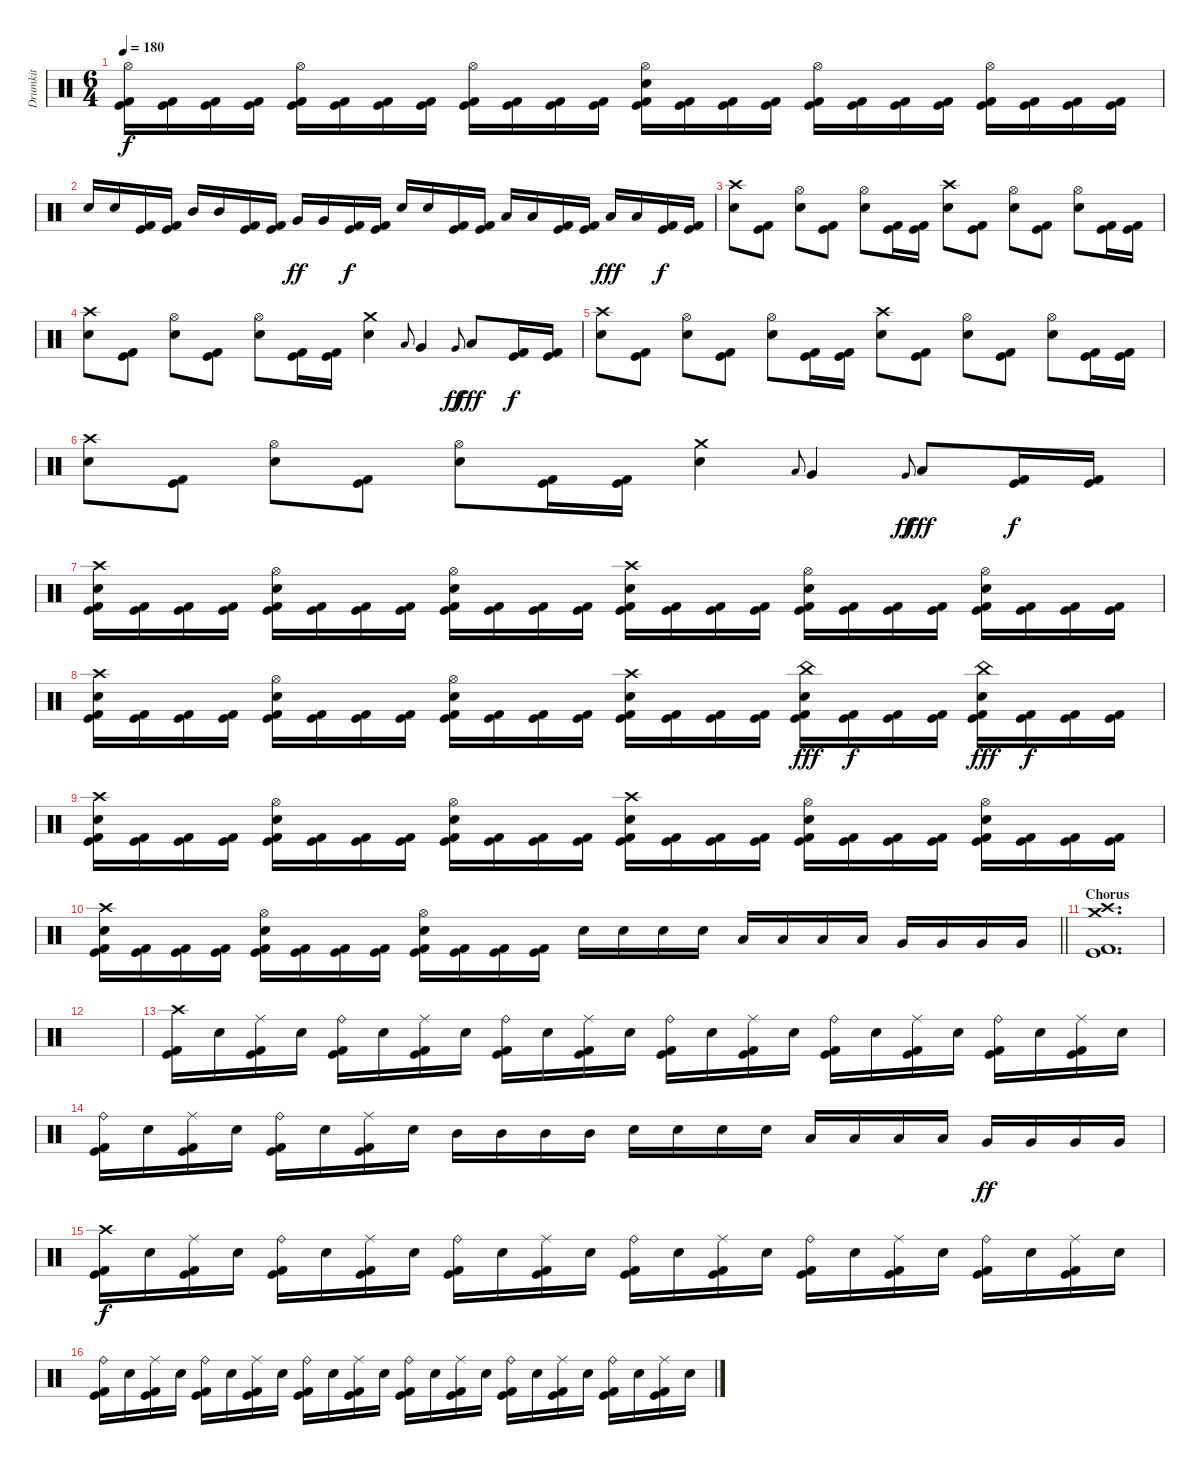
\track ("Drumkit" "Drumkit") {instrument percussion}
\staff {score}
\articulation defaults
\ts (6 4)
\tempo 180
\clef neutral
\ks c
("Hi-Hat (open)" "Kick (hit)" "Kick (hit) 2").16{dy f} ("Kick (hit)" "Kick (hit) 2").16 ("Kick (hit)" "Kick (hit) 2").16 ("Kick (hit)" "Kick (hit) 2").16 ("Hi-Hat (open)" "Kick (hit)" "Kick (hit) 2").16 ("Kick (hit)" "Kick (hit) 2").16 ("Kick (hit)" "Kick (hit) 2").16 ("Kick (hit)" "Kick (hit) 2").16 ("Hi-Hat (open)" "Kick (hit)" "Kick (hit) 2").16 ("Kick (hit)" "Kick (hit) 2").16 ("Kick (hit)" "Kick (hit) 2").16 ("Kick (hit)" "Kick (hit) 2").16 ("Hi-Hat (open)" "Electric Snare (hit)" "Kick (hit)" "Kick (hit) 2").16 ("Kick (hit)" "Kick (hit) 2").16 ("Kick (hit)" "Kick (hit) 2").16 ("Kick (hit)" "Kick (hit) 2").16 ("Hi-Hat (open)" "Kick (hit)" "Kick (hit) 2").16 ("Kick (hit)" "Kick (hit) 2").16 ("Kick (hit)" "Kick (hit) 2").16 ("Kick (hit)" "Kick (hit) 2").16 ("Hi-Hat (open)" "Kick (hit)" "Kick (hit) 2").16 ("Kick (hit)" "Kick (hit) 2").16 ("Kick (hit)" "Kick (hit) 2").16 ("Kick (hit)" "Kick (hit) 2").16 |
"Electric Snare (hit)".16 "Electric Snare (hit)".16 ("Kick (hit)" "Kick (hit) 2").16 ("Kick (hit)" "Kick (hit) 2").16 "Mid Tom (hit)".16 "Mid Tom (hit)".16 ("Kick (hit)" "Kick (hit) 2").16 ("Kick (hit)" "Kick (hit) 2").16 "Very Low Tom (hit)".16{dy ff} "Very Low Tom (hit)".16 ("Kick (hit)" "Kick (hit) 2").16{dy f} ("Kick (hit)" "Kick (hit) 2").16 "Electric Snare (hit)".16 "Electric Snare (hit)".16 ("Kick (hit)" "Kick (hit) 2").16 ("Kick (hit)" "Kick (hit) 2").16 "Low Tom (hit)".16 "Low Tom (hit)".16 ("Kick (hit)" "Kick (hit) 2").16 ("Kick (hit)" "Kick (hit) 2").16 "Low Floor Tom (hit)".16{dy fff} "Low Floor Tom (hit)".16 ("Kick (hit)" "Kick (hit) 2").16{dy f} ("Kick (hit)" "Kick (hit) 2").16 |
("Crash high (hit)" "Electric Snare (hit)").8 ("Kick (hit)" "Kick (hit) 2").8 ("Hi-Hat (open)" "Electric Snare (hit)").8 ("Kick (hit)" "Kick (hit) 2").8 ("Hi-Hat (open)" "Electric Snare (hit)").8 ("Kick (hit)" "Kick (hit) 2").16 ("Kick (hit)" "Kick (hit) 2").16 ("Crash high (hit)" "Electric Snare (hit)").8 ("Kick (hit)" "Kick (hit) 2").8 ("Hi-Hat (open)" "Electric Snare (hit)").8 ("Kick (hit)" "Kick (hit) 2").8 ("Hi-Hat (open)" "Electric Snare (hit)").8 ("Kick (hit)" "Kick (hit) 2").16 ("Kick (hit)" "Kick (hit) 2").16 |
("Crash high (hit)" "Electric Snare (hit)").8 ("Kick (hit)" "Kick (hit) 2").8 ("Hi-Hat (open)" "Electric Snare (hit)").8 ("Kick (hit)" "Kick (hit) 2").8 ("Hi-Hat (open)" "Electric Snare (hit)").8 ("Kick (hit)" "Kick (hit) 2").16 ("Kick (hit)" "Kick (hit) 2").16 ("Crash medium (hit)" "Electric Snare (hit)").4 "Low Tom (hit)".8{gr onbeat} "Very Low Tom (hit)".4 "Very Low Tom (hit)".8{gr onbeat dy ff} "Low Floor Tom (hit)".8{dy fff} ("Kick (hit)" "Kick (hit) 2").16{dy f} ("Kick (hit)" "Kick (hit) 2").16 |
("Crash high (hit)" "Electric Snare (hit)").8 ("Kick (hit)" "Kick (hit) 2").8 ("Hi-Hat (open)" "Electric Snare (hit)").8 ("Kick (hit)" "Kick (hit) 2").8 ("Hi-Hat (open)" "Electric Snare (hit)").8 ("Kick (hit)" "Kick (hit) 2").16 ("Kick (hit)" "Kick (hit) 2").16 ("Crash high (hit)" "Electric Snare (hit)").8 ("Kick (hit)" "Kick (hit) 2").8 ("Hi-Hat (open)" "Electric Snare (hit)").8 ("Kick (hit)" "Kick (hit) 2").8 ("Hi-Hat (open)" "Electric Snare (hit)").8 ("Kick (hit)" "Kick (hit) 2").16 ("Kick (hit)" "Kick (hit) 2").16 |
("Crash high (hit)" "Electric Snare (hit)").8 ("Kick (hit)" "Kick (hit) 2").8 ("Hi-Hat (open)" "Electric Snare (hit)").8 ("Kick (hit)" "Kick (hit) 2").8 ("Hi-Hat (open)" "Electric Snare (hit)").8 ("Kick (hit)" "Kick (hit) 2").16 ("Kick (hit)" "Kick (hit) 2").16 ("Crash medium (hit)" "Electric Snare (hit)").4 "Low Tom (hit)".8{gr onbeat} "Very Low Tom (hit)".4 "Very Low Tom (hit)".8{gr onbeat dy ff} "Low Floor Tom (hit)".8{dy fff} ("Kick (hit)" "Kick (hit) 2").16{dy f} ("Kick (hit)" "Kick (hit) 2").16 |
("Crash high (hit)" "Electric Snare (hit)" "Kick (hit)" "Kick (hit) 2").16 ("Kick (hit)" "Kick (hit) 2").16 ("Kick (hit)" "Kick (hit) 2").16 ("Kick (hit)" "Kick (hit) 2").16 ("Hi-Hat (open)" "Electric Snare (hit)" "Kick (hit)" "Kick (hit) 2").16 ("Kick (hit)" "Kick (hit) 2").16 ("Kick (hit)" "Kick (hit) 2").16 ("Kick (hit)" "Kick (hit) 2").16 ("Hi-Hat (open)" "Electric Snare (hit)" "Kick (hit)" "Kick (hit) 2").16 ("Kick (hit)" "Kick (hit) 2").16 ("Kick (hit)" "Kick (hit) 2").16 ("Kick (hit)" "Kick (hit) 2").16 ("Crash high (hit)" "Electric Snare (hit)" "Kick (hit)" "Kick (hit) 2").16 ("Kick (hit)" "Kick (hit) 2").16 ("Kick (hit)" "Kick (hit) 2").16 ("Kick (hit)" "Kick (hit) 2").16 ("Hi-Hat (open)" "Electric Snare (hit)" "Kick (hit)" "Kick (hit) 2").16 ("Kick (hit)" "Kick (hit) 2").16 ("Kick (hit)" "Kick (hit) 2").16 ("Kick (hit)" "Kick (hit) 2").16 ("Hi-Hat (open)" "Electric Snare (hit)" "Kick (hit)" "Kick (hit) 2").16 ("Kick (hit)" "Kick (hit) 2").16 ("Kick (hit)" "Kick (hit) 2").16 ("Kick (hit)" "Kick (hit) 2").16 |
("Crash high (hit)" "Electric Snare (hit)" "Kick (hit)" "Kick (hit) 2").16 ("Kick (hit)" "Kick (hit) 2").16 ("Kick (hit)" "Kick (hit) 2").16 ("Kick (hit)" "Kick (hit) 2").16 ("Hi-Hat (open)" "Electric Snare (hit)" "Kick (hit)" "Kick (hit) 2").16 ("Kick (hit)" "Kick (hit) 2").16 ("Kick (hit)" "Kick (hit) 2").16 ("Kick (hit)" "Kick (hit) 2").16 ("Hi-Hat (open)" "Electric Snare (hit)" "Kick (hit)" "Kick (hit) 2").16 ("Kick (hit)" "Kick (hit) 2").16 ("Kick (hit)" "Kick (hit) 2").16 ("Kick (hit)" "Kick (hit) 2").16 ("Crash high (hit)" "Electric Snare (hit)" "Kick (hit)" "Kick (hit) 2").16 ("Kick (hit)" "Kick (hit) 2").16 ("Kick (hit)" "Kick (hit) 2").16 ("Kick (hit)" "Kick (hit) 2").16 ("China (hit)" "Electric Snare (hit)" "Kick (hit)" "Kick (hit) 2").16{dy fff} ("Kick (hit)" "Kick (hit) 2").16{dy f} ("Kick (hit)" "Kick (hit) 2").16 ("Kick (hit)" "Kick (hit) 2").16 ("China (hit)" "Electric Snare (hit)" "Kick (hit)" "Kick (hit) 2").16{dy fff} ("Kick (hit)" "Kick (hit) 2").16{dy f} ("Kick (hit)" "Kick (hit) 2").16 ("Kick (hit)" "Kick (hit) 2").16 |
("Crash high (hit)" "Electric Snare (hit)" "Kick (hit)" "Kick (hit) 2").16 ("Kick (hit)" "Kick (hit) 2").16 ("Kick (hit)" "Kick (hit) 2").16 ("Kick (hit)" "Kick (hit) 2").16 ("Hi-Hat (open)" "Electric Snare (hit)" "Kick (hit)" "Kick (hit) 2").16 ("Kick (hit)" "Kick (hit) 2").16 ("Kick (hit)" "Kick (hit) 2").16 ("Kick (hit)" "Kick (hit) 2").16 ("Hi-Hat (open)" "Electric Snare (hit)" "Kick (hit)" "Kick (hit) 2").16 ("Kick (hit)" "Kick (hit) 2").16 ("Kick (hit)" "Kick (hit) 2").16 ("Kick (hit)" "Kick (hit) 2").16 ("Crash high (hit)" "Electric Snare (hit)" "Kick (hit)" "Kick (hit) 2").16 ("Kick (hit)" "Kick (hit) 2").16 ("Kick (hit)" "Kick (hit) 2").16 ("Kick (hit)" "Kick (hit) 2").16 ("Hi-Hat (open)" "Electric Snare (hit)" "Kick (hit)" "Kick (hit) 2").16 ("Kick (hit)" "Kick (hit) 2").16 ("Kick (hit)" "Kick (hit) 2").16 ("Kick (hit)" "Kick (hit) 2").16 ("Hi-Hat (open)" "Electric Snare (hit)" "Kick (hit)" "Kick (hit) 2").16 ("Kick (hit)" "Kick (hit) 2").16 ("Kick (hit)" "Kick (hit) 2").16 ("Kick (hit)" "Kick (hit) 2").16 |
\barLineRight lightlight
("Crash high (hit)" "Electric Snare (hit)" "Kick (hit)" "Kick (hit) 2").16 ("Kick (hit)" "Kick (hit) 2").16 ("Kick (hit)" "Kick (hit) 2").16 ("Kick (hit)" "Kick (hit) 2").16 ("Hi-Hat (open)" "Electric Snare (hit)" "Kick (hit)" "Kick (hit) 2").16 ("Kick (hit)" "Kick (hit) 2").16 ("Kick (hit)" "Kick (hit) 2").16 ("Kick (hit)" "Kick (hit) 2").16 ("Hi-Hat (open)" "Electric Snare (hit)" "Kick (hit)" "Kick (hit) 2").16 ("Kick (hit)" "Kick (hit) 2").16 ("Kick (hit)" "Kick (hit) 2").16 ("Kick (hit)" "Kick (hit) 2").16 "Electric Snare (hit)".16 "Electric Snare (hit)".16 "Electric Snare (hit)".16 "Electric Snare (hit)".16 "Low Tom (hit)".16 "Low Tom (hit)".16 "Low Tom (hit)".16 "Low Tom (hit)".16 "Very Low Tom (hit)".16 "Very Low Tom (hit)".16 "Very Low Tom (hit)".16 "Very Low Tom (hit)".16 |
\section ("" "Chorus")
("Crash high (hit)" "Crash medium (hit)" "Kick (hit)" "Kick (hit) 2").1{d} |
|
("Crash high (hit)" "Kick (hit)" "Kick (hit) 2").16 "Electric Snare (hit)".16 ("Ride (middle)" "Kick (hit)" "Kick (hit) 2").16 "Electric Snare (hit)".16 ("Ride (bell)" "Kick (hit)" "Kick (hit) 2").16 "Electric Snare (hit)".16 ("Ride (middle)" "Kick (hit)" "Kick (hit) 2").16 "Electric Snare (hit)".16 ("Ride (bell)" "Kick (hit)" "Kick (hit) 2").16 "Electric Snare (hit)".16 ("Ride (middle)" "Kick (hit)" "Kick (hit) 2").16 "Electric Snare (hit)".16 ("Ride (bell)" "Kick (hit)" "Kick (hit) 2").16 "Electric Snare (hit)".16 ("Ride (middle)" "Kick (hit)" "Kick (hit) 2").16 "Electric Snare (hit)".16 ("Ride (bell)" "Kick (hit)" "Kick (hit) 2").16 "Electric Snare (hit)".16 ("Ride (middle)" "Kick (hit)" "Kick (hit) 2").16 "Electric Snare (hit)".16 ("Ride (bell)" "Kick (hit)" "Kick (hit) 2").16 "Electric Snare (hit)".16 ("Ride (middle)" "Kick (hit)" "Kick (hit) 2").16 "Electric Snare (hit)".16 |
("Ride (bell)" "Kick (hit)" "Kick (hit) 2").16 "Electric Snare (hit)".16 ("Ride (middle)" "Kick (hit)" "Kick (hit) 2").16 "Electric Snare (hit)".16 ("Ride (bell)" "Kick (hit)" "Kick (hit) 2").16 "Electric Snare (hit)".16 ("Ride (middle)" "Kick (hit)" "Kick (hit) 2").16 "Electric Snare (hit)".16 "Mid Tom (hit)".16 "Mid Tom (hit)".16 "Mid Tom (hit)".16 "Mid Tom (hit)".16 "Electric Snare (hit)".16 "Electric Snare (hit)".16 "Electric Snare (hit)".16 "Electric Snare (hit)".16 "Low Tom (hit)".16 "Low Tom (hit)".16 "Low Tom (hit)".16 "Low Tom (hit)".16 "Very Low Tom (hit)".16{dy ff} "Very Low Tom (hit)".16 "Very Low Tom (hit)".16 "Very Low Tom (hit)".16 |
("Crash high (hit)" "Kick (hit)" "Kick (hit) 2").16{dy f} "Electric Snare (hit)".16 ("Ride (middle)" "Kick (hit)" "Kick (hit) 2").16 "Electric Snare (hit)".16 ("Ride (bell)" "Kick (hit)" "Kick (hit) 2").16 "Electric Snare (hit)".16 ("Ride (middle)" "Kick (hit)" "Kick (hit) 2").16 "Electric Snare (hit)".16 ("Ride (bell)" "Kick (hit)" "Kick (hit) 2").16 "Electric Snare (hit)".16 ("Ride (middle)" "Kick (hit)" "Kick (hit) 2").16 "Electric Snare (hit)".16 ("Ride (bell)" "Kick (hit)" "Kick (hit) 2").16 "Electric Snare (hit)".16 ("Ride (middle)" "Kick (hit)" "Kick (hit) 2").16 "Electric Snare (hit)".16 ("Ride (bell)" "Kick (hit)" "Kick (hit) 2").16 "Electric Snare (hit)".16 ("Ride (middle)" "Kick (hit)" "Kick (hit) 2").16 "Electric Snare (hit)".16 ("Ride (bell)" "Kick (hit)" "Kick (hit) 2").16 "Electric Snare (hit)".16 ("Ride (middle)" "Kick (hit)" "Kick (hit) 2").16 "Electric Snare (hit)".16 |
("Ride (bell)" "Kick (hit)" "Kick (hit) 2").16 "Electric Snare (hit)".16 ("Ride (middle)" "Kick (hit)" "Kick (hit) 2").16 "Electric Snare (hit)".16 ("Ride (bell)" "Kick (hit)" "Kick (hit) 2").16 "Electric Snare (hit)".16 ("Ride (middle)" "Kick (hit)" "Kick (hit) 2").16 "Electric Snare (hit)".16 ("Ride (bell)" "Kick (hit)" "Kick (hit) 2").16 "Electric Snare (hit)".16 ("Ride (middle)" "Kick (hit)" "Kick (hit) 2").16 "Electric Snare (hit)".16 ("Ride (bell)" "Kick (hit)" "Kick (hit) 2").16 "Electric Snare (hit)".16 ("Ride (middle)" "Kick (hit)" "Kick (hit) 2").16 "Electric Snare (hit)".16 ("Ride (bell)" "Kick (hit)" "Kick (hit) 2").16 "Electric Snare (hit)".16 ("Ride (middle)" "Kick (hit)" "Kick (hit) 2").16 "Electric Snare (hit)".16 ("Ride (bell)" "Kick (hit)" "Kick (hit) 2").16 "Electric Snare (hit)".16 ("Ride (middle)" "Kick (hit)" "Kick (hit) 2").16 "Electric Snare (hit)".16
